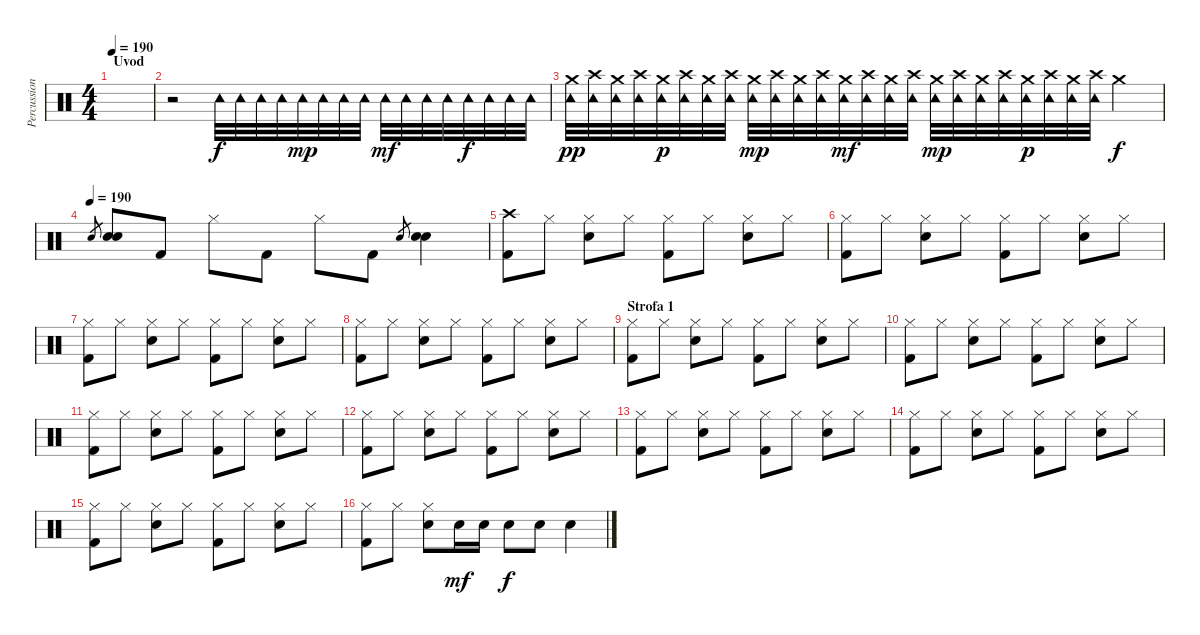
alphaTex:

\track ("Percussion" "Percussion") {instrument percussion}
\staff {score}
\articulation defaults
\ts (4 4)
\section ("" "Uvod")
\tempo 190
\tempo 125
\tempo 190
\clef neutral
\ks c
|
r.2 "Tambourine (hit)".32 "Tambourine (hit)".32 "Tambourine (hit)".32 "Tambourine (hit)".32 "Tambourine (hit)".32{dy mp} "Tambourine (hit)".32 "Tambourine (hit)".32 "Tambourine (hit)".32 "Tambourine (hit)".32{dy mf} "Tambourine (hit)".32 "Tambourine (hit)".32 "Tambourine (hit)".32 "Tambourine (hit)".32{dy f} "Tambourine (hit)".32 "Tambourine (hit)".32 "Tambourine (hit)".32 |
("Crash medium (hit)" "Tambourine (hit)").32{dy pp} ("Crash high (hit)" "Tambourine (hit)").32 ("Crash medium (hit)" "Tambourine (hit)").32 ("Crash high (hit)" "Tambourine (hit)").32 ("Crash medium (hit)" "Tambourine (hit)").32{dy p} ("Crash high (hit)" "Tambourine (hit)").32 ("Crash medium (hit)" "Tambourine (hit)").32 ("Crash high (hit)" "Tambourine (hit)").32 ("Crash medium (hit)" "Tambourine (hit)").32{dy mp} ("Crash high (hit)" "Tambourine (hit)").32 ("Crash medium (hit)" "Tambourine (hit)").32 ("Crash high (hit)" "Tambourine (hit)").32 ("Crash medium (hit)" "Tambourine (hit)").32{dy mf} ("Crash high (hit)" "Tambourine (hit)").32 ("Crash medium (hit)" "Tambourine (hit)").32 ("Crash high (hit)" "Tambourine (hit)").32 ("Crash medium (hit)" "Tambourine (hit)").32{dy mp} ("Crash high (hit)" "Tambourine (hit)").32 ("Crash medium (hit)" "Tambourine (hit)").32 ("Crash high (hit)" "Tambourine (hit)").32 ("Crash medium (hit)" "Tambourine (hit)").32{dy p} ("Crash high (hit)" "Tambourine (hit)").32 ("Crash medium (hit)" "Tambourine (hit)").32 ("Crash high (hit)" "Tambourine (hit)").32 "Crash medium (hit)".4{dy f} |
\tempo (190)
"Electric Snare (hit)".8{gr} ("Electric Snare (hit)" "Electric Snare (hit)").8 "Kick (hit) 2".8 "Hi-Hat (closed)".8 "Kick (hit) 2".8 "Hi-Hat (closed)".8 "Kick (hit) 2".8 "Electric Snare (hit)".8{gr} ("Electric Snare (hit)" "Electric Snare (hit)").4 |
("Crash high (hit)" "Kick (hit) 2").8 "Hi-Hat (closed)".8 ("Hi-Hat (closed)" "Electric Snare (hit)").8 "Hi-Hat (closed)".8 ("Hi-Hat (closed)" "Kick (hit) 2").8 "Hi-Hat (closed)".8 ("Hi-Hat (closed)" "Electric Snare (hit)").8 "Hi-Hat (closed)".8 |
("Hi-Hat (closed)" "Kick (hit) 2").8 "Hi-Hat (closed)".8 ("Hi-Hat (closed)" "Electric Snare (hit)").8 "Hi-Hat (closed)".8 ("Hi-Hat (closed)" "Kick (hit) 2").8 "Hi-Hat (closed)".8 ("Hi-Hat (closed)" "Electric Snare (hit)").8 "Hi-Hat (closed)".8 |
("Hi-Hat (closed)" "Kick (hit) 2").8 "Hi-Hat (closed)".8 ("Hi-Hat (closed)" "Electric Snare (hit)").8 "Hi-Hat (closed)".8 ("Hi-Hat (closed)" "Kick (hit) 2").8 "Hi-Hat (closed)".8 ("Hi-Hat (closed)" "Electric Snare (hit)").8 "Hi-Hat (closed)".8 |
("Hi-Hat (closed)" "Kick (hit) 2").8 "Hi-Hat (closed)".8 ("Hi-Hat (closed)" "Electric Snare (hit)").8 "Hi-Hat (closed)".8 ("Hi-Hat (closed)" "Kick (hit) 2").8 "Hi-Hat (closed)".8 ("Hi-Hat (closed)" "Electric Snare (hit)").8 "Hi-Hat (closed)".8 |
\section ("" "Strofa 1")
("Hi-Hat (closed)" "Kick (hit) 2").8 "Hi-Hat (closed)".8 ("Hi-Hat (closed)" "Electric Snare (hit)").8 "Hi-Hat (closed)".8 ("Hi-Hat (closed)" "Kick (hit) 2").8 "Hi-Hat (closed)".8 ("Hi-Hat (closed)" "Electric Snare (hit)").8 "Hi-Hat (closed)".8 |
("Hi-Hat (closed)" "Kick (hit) 2").8 "Hi-Hat (closed)".8 ("Hi-Hat (closed)" "Electric Snare (hit)").8 "Hi-Hat (closed)".8 ("Hi-Hat (closed)" "Kick (hit) 2").8 "Hi-Hat (closed)".8 ("Hi-Hat (closed)" "Electric Snare (hit)").8 "Hi-Hat (closed)".8 |
("Hi-Hat (closed)" "Kick (hit) 2").8 "Hi-Hat (closed)".8 ("Hi-Hat (closed)" "Electric Snare (hit)").8 "Hi-Hat (closed)".8 ("Hi-Hat (closed)" "Kick (hit) 2").8 "Hi-Hat (closed)".8 ("Hi-Hat (closed)" "Electric Snare (hit)").8 "Hi-Hat (closed)".8 |
("Hi-Hat (closed)" "Kick (hit) 2").8 "Hi-Hat (closed)".8 ("Hi-Hat (closed)" "Electric Snare (hit)").8 "Hi-Hat (closed)".8 ("Hi-Hat (closed)" "Kick (hit) 2").8 "Hi-Hat (closed)".8 ("Hi-Hat (closed)" "Electric Snare (hit)").8 "Hi-Hat (closed)".8 |
("Hi-Hat (closed)" "Kick (hit) 2").8 "Hi-Hat (closed)".8 ("Hi-Hat (closed)" "Electric Snare (hit)").8 "Hi-Hat (closed)".8 ("Hi-Hat (closed)" "Kick (hit) 2").8 "Hi-Hat (closed)".8 ("Hi-Hat (closed)" "Electric Snare (hit)").8 "Hi-Hat (closed)".8 |
("Hi-Hat (closed)" "Kick (hit) 2").8 "Hi-Hat (closed)".8 ("Hi-Hat (closed)" "Electric Snare (hit)").8 "Hi-Hat (closed)".8 ("Hi-Hat (closed)" "Kick (hit) 2").8 "Hi-Hat (closed)".8 ("Hi-Hat (closed)" "Electric Snare (hit)").8 "Hi-Hat (closed)".8 |
("Hi-Hat (closed)" "Kick (hit) 2").8 "Hi-Hat (closed)".8 ("Hi-Hat (closed)" "Electric Snare (hit)").8 "Hi-Hat (closed)".8 ("Hi-Hat (closed)" "Kick (hit) 2").8 "Hi-Hat (closed)".8 ("Hi-Hat (closed)" "Electric Snare (hit)").8 "Hi-Hat (closed)".8 |
("Hi-Hat (closed)" "Kick (hit) 2").8 "Hi-Hat (closed)".8 ("Hi-Hat (closed)" "Electric Snare (hit)").8 "Electric Snare (hit)".16{dy mf} "Electric Snare (hit)".16 "Electric Snare (hit)".8{dy f} "Electric Snare (hit)".8 "Electric Snare (hit)".4
